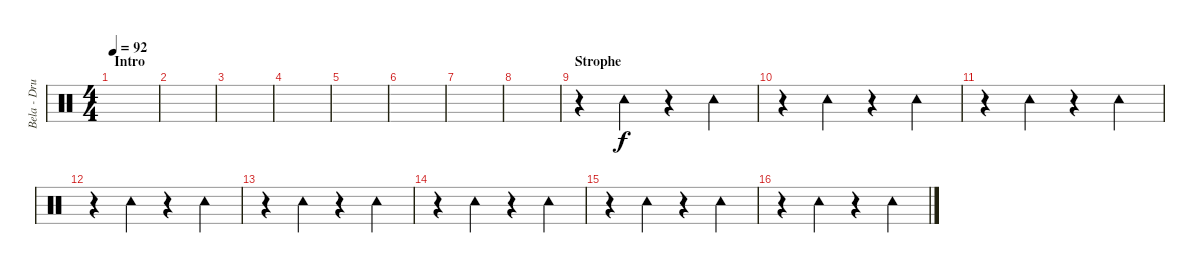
\track ("Bela - Drums" "Bela - Dru") {instrument percussion}
\staff {score}
\articulation defaults
\ts (4 4)
\section ("" "Intro")
\tempo 92
\clef neutral
\ks c
|
|
|
|
|
|
|
|
\section ("" "Strophe")
r.4 "Tambourine (hit)".4 r.4 "Tambourine (hit)".4 |
r.4 "Tambourine (hit)".4 r.4 "Tambourine (hit)".4 |
r.4 "Tambourine (hit)".4 r.4 "Tambourine (hit)".4 |
r.4 "Tambourine (hit)".4 r.4 "Tambourine (hit)".4 |
r.4 "Tambourine (hit)".4 r.4 "Tambourine (hit)".4 |
r.4 "Tambourine (hit)".4 r.4 "Tambourine (hit)".4 |
r.4 "Tambourine (hit)".4 r.4 "Tambourine (hit)".4 |
r.4 "Tambourine (hit)".4 r.4 "Tambourine (hit)".4
